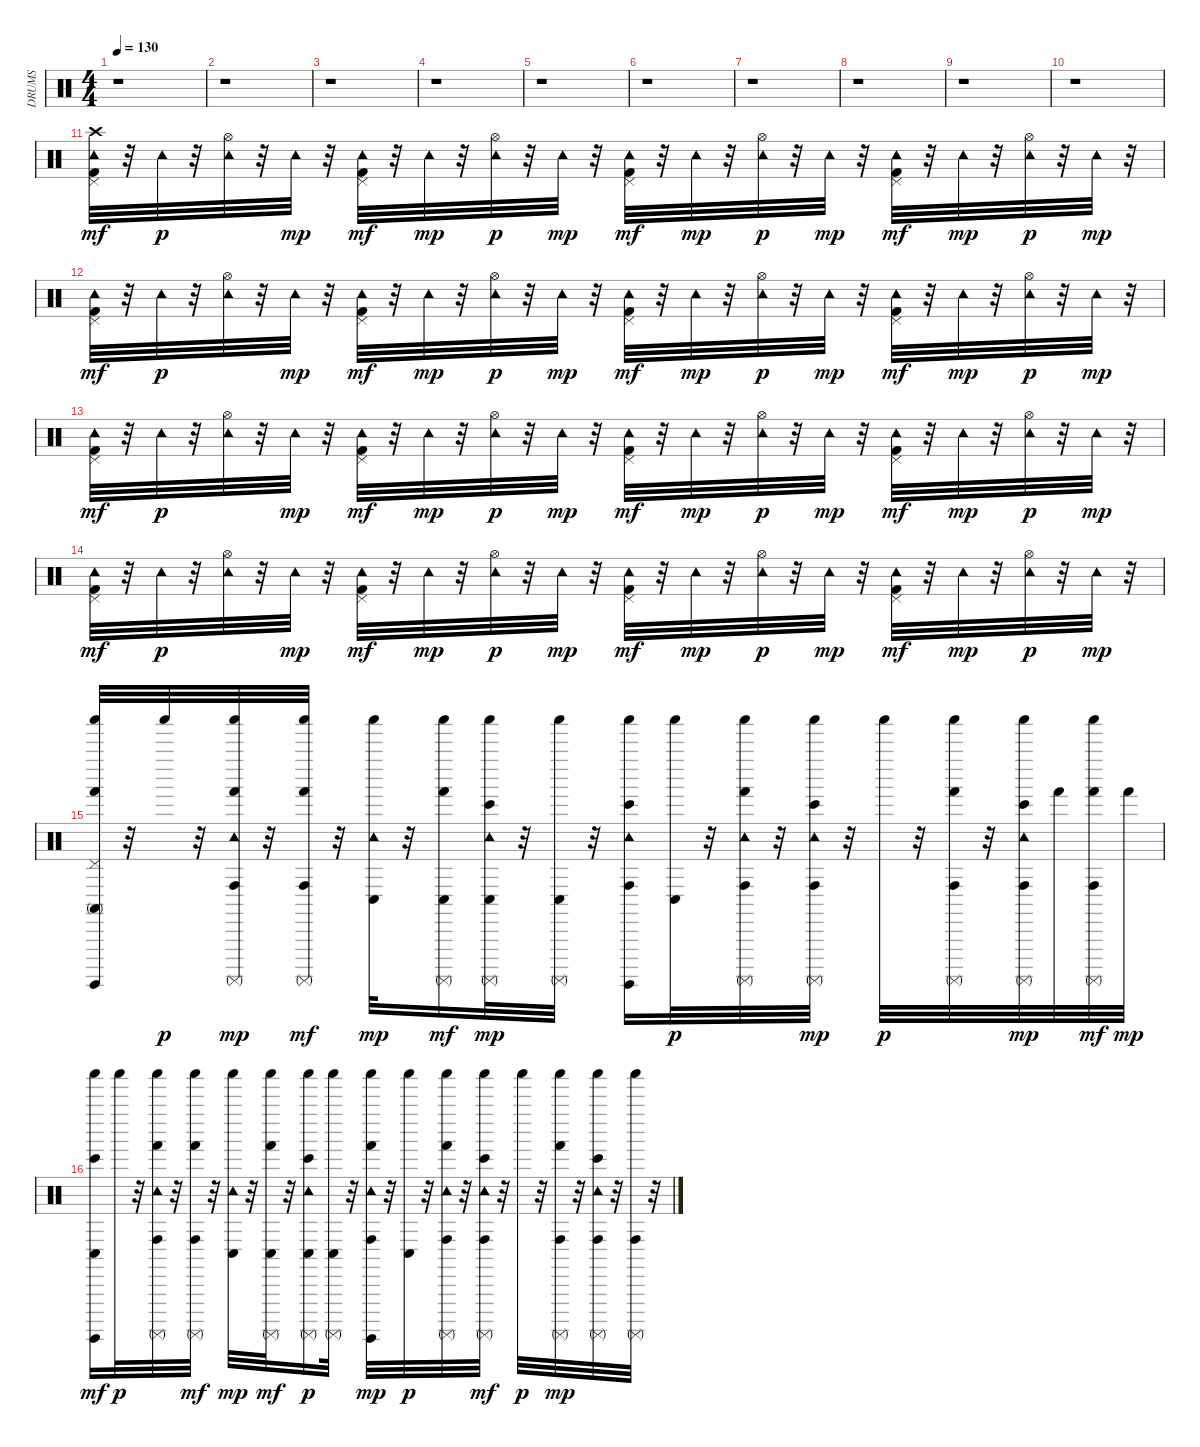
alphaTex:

\track ("DRUMS" "DRUMS") {instrument percussion}
\staff {score}
\articulation defaults
\ts (4 4)
\tempo 130
\clef neutral
\ks c
r.1{dy mf} |
r.1 |
r.1 |
r.1 |
r.1 |
r.1 |
r.1 |
r.1 |
r.1 |
r.1 |
("Kick (hit) 2" "Pedal Hi-Hat (hit)" "Crash high (hit)" "Tambourine (hit)").32 r.32 "Tambourine (hit)".32{dy p} r.32 ("Hi-Hat (open)" "Tambourine (hit)").32 r.32 "Tambourine (hit)".32{dy mp} r.32 ("Kick (hit) 2" "Pedal Hi-Hat (hit)" "Tambourine (hit)").32{dy mf} r.32 "Tambourine (hit)".32{dy mp} r.32 ("Hi-Hat (open)" "Tambourine (hit)").32{dy p} r.32 "Tambourine (hit)".32{dy mp} r.32 ("Kick (hit) 2" "Pedal Hi-Hat (hit)" "Tambourine (hit)").32{dy mf} r.32 "Tambourine (hit)".32{dy mp} r.32 ("Hi-Hat (open)" "Tambourine (hit)").32{dy p} r.32 "Tambourine (hit)".32{dy mp} r.32 ("Kick (hit) 2" "Pedal Hi-Hat (hit)" "Tambourine (hit)").32{dy mf} r.32 "Tambourine (hit)".32{dy mp} r.32 ("Hi-Hat (open)" "Tambourine (hit)").32{dy p} r.32 "Tambourine (hit)".32{dy mp} r.32 |
("Kick (hit) 2" "Pedal Hi-Hat (hit)" "Tambourine (hit)").32{dy mf} r.32 "Tambourine (hit)".32{dy p} r.32 ("Hi-Hat (open)" "Tambourine (hit)").32 r.32 "Tambourine (hit)".32{dy mp} r.32 ("Kick (hit) 2" "Pedal Hi-Hat (hit)" "Tambourine (hit)").32{dy mf} r.32 "Tambourine (hit)".32{dy mp} r.32 ("Hi-Hat (open)" "Tambourine (hit)").32{dy p} r.32 "Tambourine (hit)".32{dy mp} r.32 ("Kick (hit) 2" "Pedal Hi-Hat (hit)" "Tambourine (hit)").32{dy mf} r.32 "Tambourine (hit)".32{dy mp} r.32 ("Hi-Hat (open)" "Tambourine (hit)").32{dy p} r.32 "Tambourine (hit)".32{dy mp} r.32 ("Kick (hit) 2" "Pedal Hi-Hat (hit)" "Tambourine (hit)").32{dy mf} r.32 "Tambourine (hit)".32{dy mp} r.32 ("Hi-Hat (open)" "Tambourine (hit)").32{dy p} r.32 "Tambourine (hit)".32{dy mp} r.32 |
("Kick (hit) 2" "Pedal Hi-Hat (hit)" "Tambourine (hit)").32{dy mf} r.32 "Tambourine (hit)".32{dy p} r.32 ("Hi-Hat (open)" "Tambourine (hit)").32 r.32 "Tambourine (hit)".32{dy mp} r.32 ("Kick (hit) 2" "Pedal Hi-Hat (hit)" "Tambourine (hit)").32{dy mf} r.32 "Tambourine (hit)".32{dy mp} r.32 ("Hi-Hat (open)" "Tambourine (hit)").32{dy p} r.32 "Tambourine (hit)".32{dy mp} r.32 ("Kick (hit) 2" "Pedal Hi-Hat (hit)" "Tambourine (hit)").32{dy mf} r.32 "Tambourine (hit)".32{dy mp} r.32 ("Hi-Hat (open)" "Tambourine (hit)").32{dy p} r.32 "Tambourine (hit)".32{dy mp} r.32 ("Kick (hit) 2" "Pedal Hi-Hat (hit)" "Tambourine (hit)").32{dy mf} r.32 "Tambourine (hit)".32{dy mp} r.32 ("Hi-Hat (open)" "Tambourine (hit)").32{dy p} r.32 "Tambourine (hit)".32{dy mp} r.32 |
("Kick (hit) 2" "Pedal Hi-Hat (hit)" "Tambourine (hit)").32{dy mf} r.32 "Tambourine (hit)".32{dy p} r.32 ("Hi-Hat (open)" "Tambourine (hit)").32 r.32 "Tambourine (hit)".32{dy mp} r.32 ("Kick (hit) 2" "Pedal Hi-Hat (hit)" "Tambourine (hit)").32{dy mf} r.32 "Tambourine (hit)".32{dy mp} r.32 ("Hi-Hat (open)" "Tambourine (hit)").32{dy p} r.32 "Tambourine (hit)".32{dy mp} r.32 ("Kick (hit) 2" "Pedal Hi-Hat (hit)" "Tambourine (hit)").32{dy mf} r.32 "Tambourine (hit)".32{dy mp} r.32 ("Hi-Hat (open)" "Tambourine (hit)").32{dy p} r.32 "Tambourine (hit)".32{dy mp} r.32 ("Kick (hit) 2" "Pedal Hi-Hat (hit)" "Tambourine (hit)").32{dy mf} r.32 "Tambourine (hit)".32{dy mp} r.32 ("Hi-Hat (open)" "Tambourine (hit)").32{dy p} r.32 "Tambourine (hit)".32{dy mp} r.32 |
("Pedal Hi-Hat (hit)" "Shaker (hit)" "Conga high (mute)" "Hand (hit)" "Surdo (hit)").32 r.32 "Shaker (hit)".32{dy p} r.32 ("Tambourine (hit)" "Shaker (hit)" "Hand (hit)" "Surdo (mute)" "Conga high (hit)").32{dy mp} r.32 ("Shaker (hit)" "Hand (hit)" "Surdo (mute)" "Conga high (hit)").32{dy mf} r.32 ("Tambourine (hit)" "Shaker (hit)" "Conga low (hit)").32{dy mp} r.32 ("Shaker (hit)" "Hand (hit)" "Surdo (mute)" "Conga low (hit)").16{dy mf} ("Tambourine (hit)" "Shaker (hit)" "Surdo (mute)" "Bongo High (hit)" "Conga low (hit)").32{dy mp} r.32 ("Shaker (hit)" "Conga low (hit)" "Surdo (mute)").32 r.32 ("Tambourine (hit)" "Shaker (hit)" "Conga high (hit)" "Surdo (hit)" "Bongo High (hit)").16 ("Shaker (hit)" "Conga low (hit)").32{dy p} r.32 ("Conga high (hit)" "Tambourine (hit)" "Shaker (hit)" "Hand (hit)" "Surdo (mute)").32 r.32 ("Conga high (hit)" "Tambourine (hit)" "Shaker (hit)" "Surdo (mute)" "Bongo High (hit)").32{dy mp} r.32 "Shaker (hit)".32{dy p} r.32 ("Shaker (hit)" "Surdo (mute)" "Hand (hit)" "Conga high (hit)").32 r.32 ("Tambourine (hit)" "Shaker (hit)" "Surdo (mute)" "Bongo High (hit)" "Conga high (hit)").32{dy mp} "Hand (hit)".32 ("Shaker (hit)" "Hand (hit)" "Surdo (mute)" "Conga high (hit)").32{dy mf} "Hand (hit)".32{dy mp} |
("Shaker (hit)" "Conga low (hit)" "Surdo (hit)" "Bongo High (hit)").16{dy mf} "Shaker (hit)".32{dy p} r.32 ("Tambourine (hit)" "Shaker (hit)" "Conga high (hit)" "Hand (hit)" "Surdo (mute)").32 r.32 ("Conga high (hit)" "Hand (hit)" "Shaker (hit)" "Surdo (mute)").32{dy mf} r.32 ("Tambourine (hit)" "Shaker (hit)" "Conga low (hit)").32{dy mp} r.32 ("Shaker (hit)" "Hand (hit)" "Surdo (mute)" "Conga low (hit)").32{dy mf} r.32 ("Tambourine (hit)" "Shaker (hit)" "Surdo (mute)" "Conga low (hit)" "Bongo High (hit)").16{dy p} ("Shaker (hit)" "Surdo (mute)" "Conga low (hit)").32 r.32 ("Tambourine (hit)" "Shaker (hit)" "Surdo (hit)" "Conga high (hit)" "Hand (hit)").32{dy mp} r.32 ("Shaker (hit)" "Conga low (hit)").32{dy p} r.32 ("Tambourine (hit)" "Shaker (hit)" "Conga high (hit)" "Hand (hit)" "Surdo (mute)").32 r.32 ("Conga high (hit)" "Bongo High (hit)" "Tambourine (hit)" "Shaker (hit)" "Surdo (mute)").32{dy mf} r.32 "Shaker (hit)".32{dy p} r.32 ("Hand (hit)" "Shaker (hit)" "Surdo (mute)" "Conga high (hit)").32{dy mp} r.32 ("Tambourine (hit)" "Shaker (hit)" "Surdo (mute)" "Conga high (hit)" "Bongo High (hit)").32 r.32 ("Shaker (hit)" "Conga high (hit)" "Surdo (mute)").32 r.32
